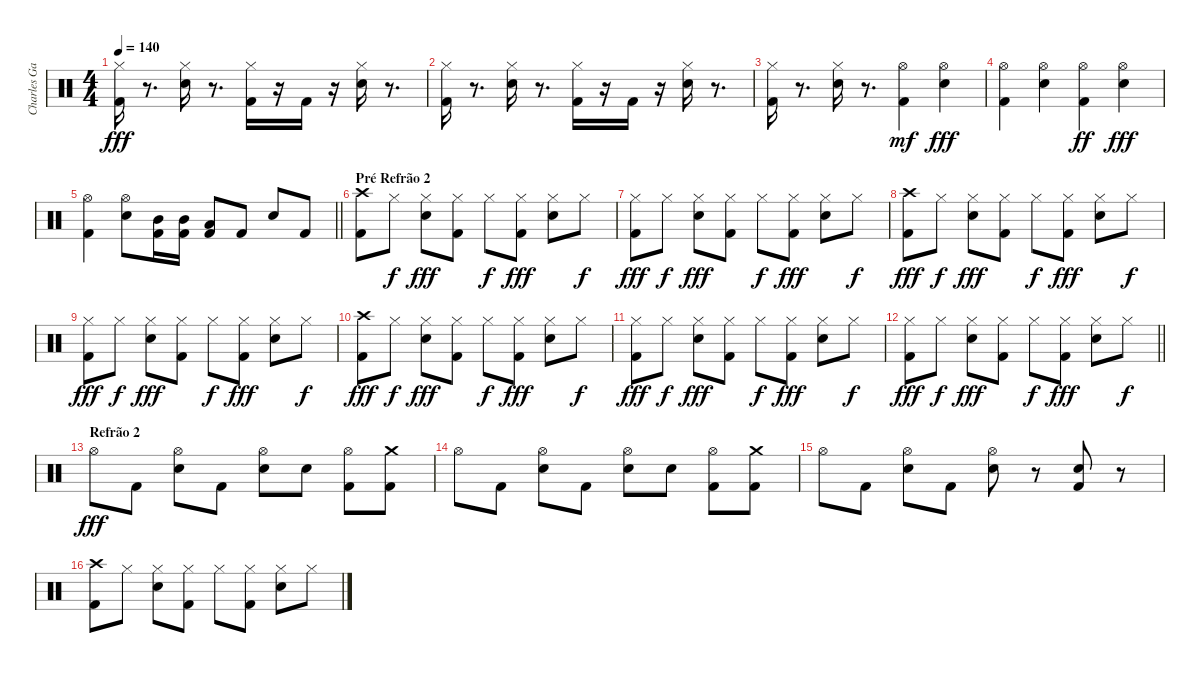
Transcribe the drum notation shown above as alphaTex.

\track ("Charles Gavin" "Charles Ga") {instrument percussion}
\staff {score}
\articulation defaults
\ts (4 4)
\tempo 140
\clef neutral
\ks c
("Hi-Hat (closed)" "Kick (hit) 2").16{dy fff} r.8{d} ("Hi-Hat (closed)" "Snare (hit) 2").16 r.8{d} ("Kick (hit) 2" "Hi-Hat (closed)").16 r.16 "Kick (hit) 2".16 r.16 ("Hi-Hat (closed)" "Snare (hit) 2").16 r.8{d} |
("Hi-Hat (closed)" "Kick (hit) 2").16 r.8{d} ("Hi-Hat (closed)" "Snare (hit) 2").16 r.8{d} ("Kick (hit) 2" "Hi-Hat (closed)").16 r.16 "Kick (hit) 2".16 r.16 ("Hi-Hat (closed)" "Snare (hit) 2").16 r.8{d} |
("Hi-Hat (closed)" "Kick (hit) 2").16 r.8{d} ("Hi-Hat (closed)" "Snare (hit) 2").16 r.8{d} ("Kick (hit) 2" "Hi-Hat (open)").4{dy mf} ("Snare (hit) 2" "Hi-Hat (open)").4{dy fff} |
("Hi-Hat (open)" "Kick (hit) 2").4 ("Hi-Hat (open)" "Snare (hit) 2").4 ("Kick (hit) 2" "Hi-Hat (open)").4{dy ff} ("Hi-Hat (open)" "Snare (hit) 2").4{dy fff} |
\barLineRight lightlight
("Hi-Hat (open)" "Kick (hit) 2").4 ("Hi-Hat (open)" "Snare (hit) 2").8 ("Kick (hit) 2" "Mid Tom (hit)").16 ("Kick (hit) 2" "Mid Tom (hit)").16 ("Kick (hit) 2" "Low Tom (hit)").8 "Kick (hit) 2".8 "Snare (hit) 2".8 "Kick (hit) 2".8 |
\section ("" "Pré Refrão 2")
("Crash high (hit)" "Kick (hit) 2").8 "Hi-Hat (closed)".8{dy f} ("Hi-Hat (closed)" "Snare (hit) 2").8{dy fff} ("Hi-Hat (closed)" "Kick (hit) 2").8 "Hi-Hat (closed)".8{dy f} ("Hi-Hat (closed)" "Kick (hit) 2").8{dy fff} ("Hi-Hat (closed)" "Snare (hit) 2").8 "Hi-Hat (closed)".8{dy f} |
("Hi-Hat (closed)" "Kick (hit) 2").8{dy fff} "Hi-Hat (closed)".8{dy f} ("Hi-Hat (closed)" "Snare (hit) 2").8{dy fff} ("Hi-Hat (closed)" "Kick (hit) 2").8 "Hi-Hat (closed)".8{dy f} ("Hi-Hat (closed)" "Kick (hit) 2").8{dy fff} ("Hi-Hat (closed)" "Snare (hit) 2").8 "Hi-Hat (closed)".8{dy f} |
("Crash high (hit)" "Kick (hit) 2").8{dy fff} "Hi-Hat (closed)".8{dy f} ("Hi-Hat (closed)" "Snare (hit) 2").8{dy fff} ("Hi-Hat (closed)" "Kick (hit) 2").8 "Hi-Hat (closed)".8{dy f} ("Hi-Hat (closed)" "Kick (hit) 2").8{dy fff} ("Hi-Hat (closed)" "Snare (hit) 2").8 "Hi-Hat (closed)".8{dy f} |
("Hi-Hat (closed)" "Kick (hit) 2").8{dy fff} "Hi-Hat (closed)".8{dy f} ("Hi-Hat (closed)" "Snare (hit) 2").8{dy fff} ("Hi-Hat (closed)" "Kick (hit) 2").8 "Hi-Hat (closed)".8{dy f} ("Hi-Hat (closed)" "Kick (hit) 2").8{dy fff} ("Hi-Hat (closed)" "Snare (hit) 2").8 "Hi-Hat (closed)".8{dy f} |
("Crash high (hit)" "Kick (hit) 2").8{dy fff} "Hi-Hat (closed)".8{dy f} ("Hi-Hat (closed)" "Snare (hit) 2").8{dy fff} ("Hi-Hat (closed)" "Kick (hit) 2").8 "Hi-Hat (closed)".8{dy f} ("Hi-Hat (closed)" "Kick (hit) 2").8{dy fff} ("Hi-Hat (closed)" "Snare (hit) 2").8 "Hi-Hat (closed)".8{dy f} |
("Hi-Hat (closed)" "Kick (hit) 2").8{dy fff} "Hi-Hat (closed)".8{dy f} ("Hi-Hat (closed)" "Snare (hit) 2").8{dy fff} ("Hi-Hat (closed)" "Kick (hit) 2").8 "Hi-Hat (closed)".8{dy f} ("Hi-Hat (closed)" "Kick (hit) 2").8{dy fff} ("Hi-Hat (closed)" "Snare (hit) 2").8 "Hi-Hat (closed)".8{dy f} |
\barLineRight lightlight
("Hi-Hat (closed)" "Kick (hit) 2").8{dy fff} "Hi-Hat (closed)".8{dy f} ("Hi-Hat (closed)" "Snare (hit) 2").8{dy fff} ("Hi-Hat (closed)" "Kick (hit) 2").8 "Hi-Hat (closed)".8{dy f} ("Hi-Hat (closed)" "Kick (hit) 2").8{dy fff} ("Hi-Hat (closed)" "Snare (hit) 2").8 "Hi-Hat (closed)".8{dy f} |
\section ("" "Refrão 2")
"Hi-Hat (open)".8{dy fff} "Kick (hit) 2".8 ("Hi-Hat (open)" "Snare (hit) 2").8 "Kick (hit) 2".8 ("Hi-Hat (open)" "Snare (hit) 2").8 "Snare (hit) 2".8 ("Hi-Hat (open)" "Kick (hit) 2").8 ("Crash medium (hit)" "Kick (hit) 2").8 |
"Hi-Hat (open)".8 "Kick (hit) 2".8 ("Hi-Hat (open)" "Snare (hit) 2").8 "Kick (hit) 2".8 ("Hi-Hat (open)" "Snare (hit) 2").8 "Snare (hit) 2".8 ("Hi-Hat (open)" "Kick (hit) 2").8 ("Crash medium (hit)" "Kick (hit) 2").8 |
"Hi-Hat (open)".8 "Kick (hit) 2".8 ("Hi-Hat (open)" "Snare (hit) 2").8 "Kick (hit) 2".8 ("Hi-Hat (open)" "Snare (hit) 2").8 r.8 ("Kick (hit) 2" "Snare (hit) 2").8 r.8 |
("Crash high (hit)" "Kick (hit) 2").8 "Hi-Hat (closed)".8 ("Hi-Hat (closed)" "Snare (hit) 2").8 ("Hi-Hat (closed)" "Kick (hit) 2").8 "Hi-Hat (closed)".8 ("Hi-Hat (closed)" "Kick (hit) 2").8 ("Hi-Hat (closed)" "Snare (hit) 2").8 "Hi-Hat (closed)".8
